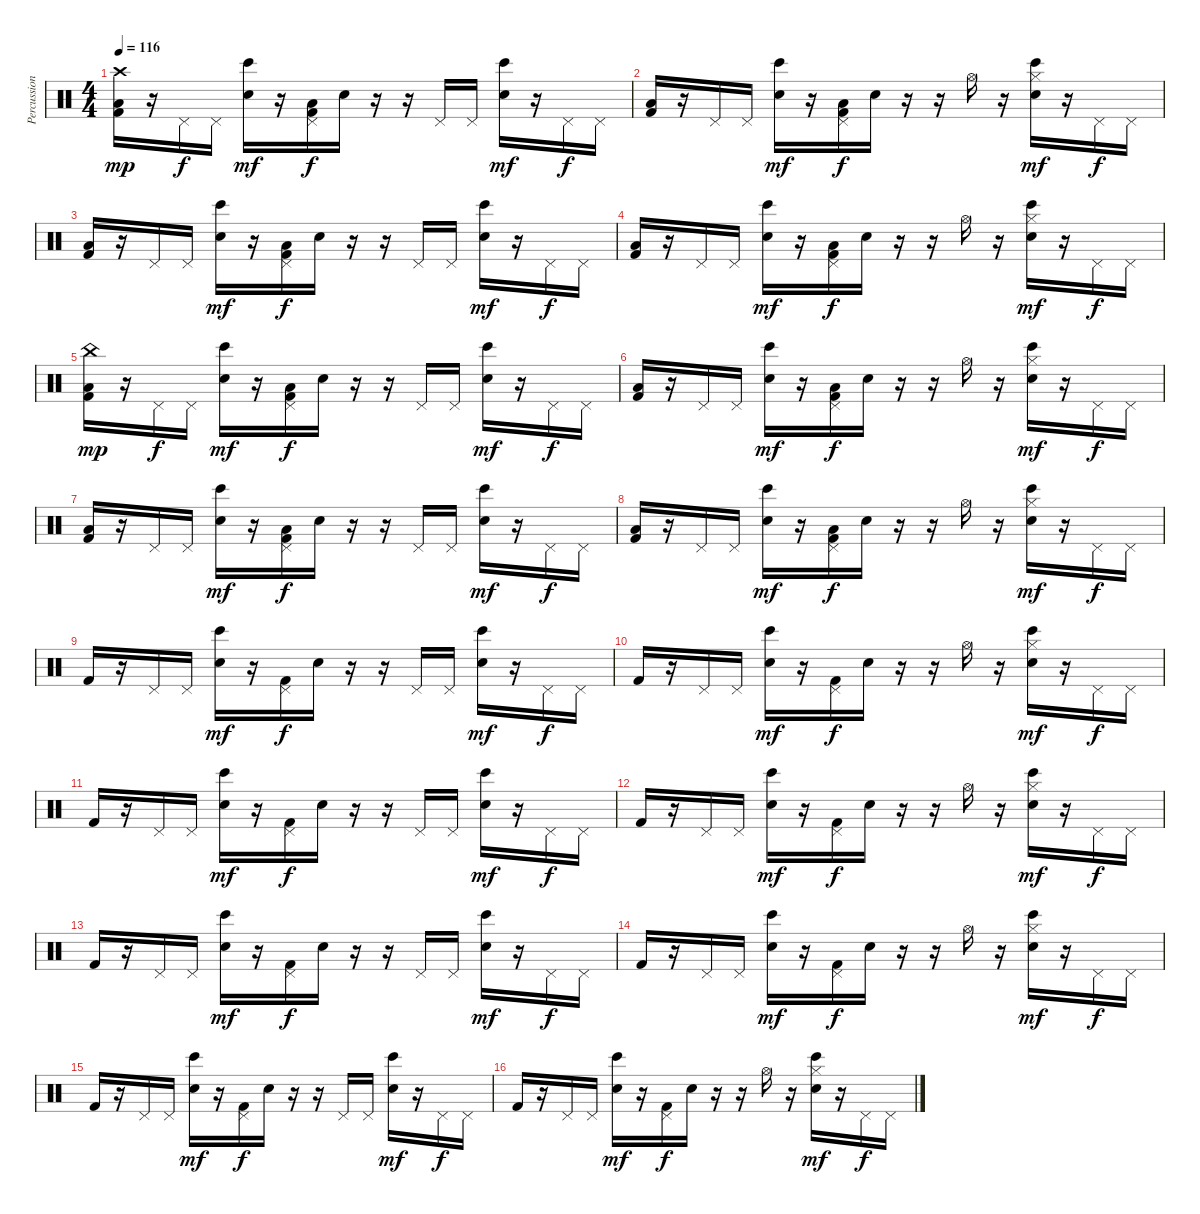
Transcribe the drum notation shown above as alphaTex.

\track ("Percussion" "Percussion") {instrument percussion}
\staff {score}
\articulation defaults
\ts (4 4)
\tempo 116
\clef neutral
\ks c
("Crash high (hit)" "Low Floor Tom (hit)" "Kick (hit) 2").16{dy mp} r.16 "Pedal Hi-Hat (hit)".16{dy f} "Pedal Hi-Hat (hit)".16 ("Bongo High (hit)" "Hand Clap (hit)").16{dy mf} r.16 ("Pedal Hi-Hat (hit)" "Low Floor Tom (hit)" "Kick (hit) 2").16{dy f} "Snare (hit)".16 r.16 r.16 "Pedal Hi-Hat (hit)".16 "Pedal Hi-Hat (hit)".16 ("Bongo High (hit)" "Hand Clap (hit)").16{dy mf} r.16 "Pedal Hi-Hat (hit)".16{dy f} "Pedal Hi-Hat (hit)".16 |
("Low Floor Tom (hit)" "Kick (hit) 2").16 r.16 "Pedal Hi-Hat (hit)".16 "Pedal Hi-Hat (hit)".16 ("Bongo High (hit)" "Hand Clap (hit)").16{dy mf} r.16 ("Pedal Hi-Hat (hit)" "Low Floor Tom (hit)" "Kick (hit) 2").16{dy f} "Snare (hit)".16 r.16 r.16 "Hi-Hat (open)".16 r.16 ("Hi-Hat (closed)" "Bongo High (hit)" "Hand Clap (hit)").16{dy mf} r.16 "Pedal Hi-Hat (hit)".16{dy f} "Pedal Hi-Hat (hit)".16 |
("Low Floor Tom (hit)" "Kick (hit) 2").16 r.16 "Pedal Hi-Hat (hit)".16 "Pedal Hi-Hat (hit)".16 ("Bongo High (hit)" "Hand Clap (hit)").16{dy mf} r.16 ("Pedal Hi-Hat (hit)" "Low Floor Tom (hit)" "Kick (hit) 2").16{dy f} "Snare (hit)".16 r.16 r.16 "Pedal Hi-Hat (hit)".16 "Pedal Hi-Hat (hit)".16 ("Bongo High (hit)" "Hand Clap (hit)").16{dy mf} r.16 "Pedal Hi-Hat (hit)".16{dy f} "Pedal Hi-Hat (hit)".16 |
("Low Floor Tom (hit)" "Kick (hit) 2").16 r.16 "Pedal Hi-Hat (hit)".16 "Pedal Hi-Hat (hit)".16 ("Bongo High (hit)" "Hand Clap (hit)").16{dy mf} r.16 ("Pedal Hi-Hat (hit)" "Low Floor Tom (hit)" "Kick (hit) 2").16{dy f} "Snare (hit)".16 r.16 r.16 "Hi-Hat (open)".16 r.16 ("Hi-Hat (closed)" "Bongo High (hit)" "Hand Clap (hit)").16{dy mf} r.16 "Pedal Hi-Hat (hit)".16{dy f} "Pedal Hi-Hat (hit)".16 |
("China (hit)" "Low Floor Tom (hit)" "Kick (hit) 2").16{dy mp} r.16 "Pedal Hi-Hat (hit)".16{dy f} "Pedal Hi-Hat (hit)".16 ("Bongo High (hit)" "Hand Clap (hit)").16{dy mf} r.16 ("Pedal Hi-Hat (hit)" "Low Floor Tom (hit)" "Kick (hit) 2").16{dy f} "Snare (hit)".16 r.16 r.16 "Pedal Hi-Hat (hit)".16 "Pedal Hi-Hat (hit)".16 ("Bongo High (hit)" "Hand Clap (hit)").16{dy mf} r.16 "Pedal Hi-Hat (hit)".16{dy f} "Pedal Hi-Hat (hit)".16 |
("Low Floor Tom (hit)" "Kick (hit) 2").16 r.16 "Pedal Hi-Hat (hit)".16 "Pedal Hi-Hat (hit)".16 ("Bongo High (hit)" "Hand Clap (hit)").16{dy mf} r.16 ("Pedal Hi-Hat (hit)" "Low Floor Tom (hit)" "Kick (hit) 2").16{dy f} "Snare (hit)".16 r.16 r.16 "Hi-Hat (open)".16 r.16 ("Hi-Hat (closed)" "Bongo High (hit)" "Hand Clap (hit)").16{dy mf} r.16 "Pedal Hi-Hat (hit)".16{dy f} "Pedal Hi-Hat (hit)".16 |
("Low Floor Tom (hit)" "Kick (hit) 2").16 r.16 "Pedal Hi-Hat (hit)".16 "Pedal Hi-Hat (hit)".16 ("Bongo High (hit)" "Hand Clap (hit)").16{dy mf} r.16 ("Pedal Hi-Hat (hit)" "Low Floor Tom (hit)" "Kick (hit) 2").16{dy f} "Snare (hit)".16 r.16 r.16 "Pedal Hi-Hat (hit)".16 "Pedal Hi-Hat (hit)".16 ("Bongo High (hit)" "Hand Clap (hit)").16{dy mf} r.16 "Pedal Hi-Hat (hit)".16{dy f} "Pedal Hi-Hat (hit)".16 |
("Low Floor Tom (hit)" "Kick (hit) 2").16 r.16 "Pedal Hi-Hat (hit)".16 "Pedal Hi-Hat (hit)".16 ("Bongo High (hit)" "Hand Clap (hit)").16{dy mf} r.16 ("Pedal Hi-Hat (hit)" "Low Floor Tom (hit)" "Kick (hit) 2").16{dy f} "Snare (hit)".16 r.16 r.16 "Hi-Hat (open)".16 r.16 ("Hi-Hat (closed)" "Bongo High (hit)" "Hand Clap (hit)").16{dy mf} r.16 "Pedal Hi-Hat (hit)".16{dy f} "Pedal Hi-Hat (hit)".16 |
"Kick (hit) 2".16 r.16 "Pedal Hi-Hat (hit)".16 "Pedal Hi-Hat (hit)".16 ("Bongo High (hit)" "Hand Clap (hit)").16{dy mf} r.16 ("Pedal Hi-Hat (hit)" "Kick (hit) 2").16{dy f} "Snare (hit)".16 r.16 r.16 "Pedal Hi-Hat (hit)".16 "Pedal Hi-Hat (hit)".16 ("Bongo High (hit)" "Hand Clap (hit)").16{dy mf} r.16 "Pedal Hi-Hat (hit)".16{dy f} "Pedal Hi-Hat (hit)".16 |
"Kick (hit) 2".16 r.16 "Pedal Hi-Hat (hit)".16 "Pedal Hi-Hat (hit)".16 ("Bongo High (hit)" "Hand Clap (hit)").16{dy mf} r.16 ("Pedal Hi-Hat (hit)" "Kick (hit) 2").16{dy f} "Snare (hit)".16 r.16 r.16 "Hi-Hat (open)".16 r.16 ("Hi-Hat (closed)" "Bongo High (hit)" "Hand Clap (hit)").16{dy mf} r.16 "Pedal Hi-Hat (hit)".16{dy f} "Pedal Hi-Hat (hit)".16 |
"Kick (hit) 2".16 r.16 "Pedal Hi-Hat (hit)".16 "Pedal Hi-Hat (hit)".16 ("Bongo High (hit)" "Hand Clap (hit)").16{dy mf} r.16 ("Pedal Hi-Hat (hit)" "Kick (hit) 2").16{dy f} "Snare (hit)".16 r.16 r.16 "Pedal Hi-Hat (hit)".16 "Pedal Hi-Hat (hit)".16 ("Bongo High (hit)" "Hand Clap (hit)").16{dy mf} r.16 "Pedal Hi-Hat (hit)".16{dy f} "Pedal Hi-Hat (hit)".16 |
"Kick (hit) 2".16 r.16 "Pedal Hi-Hat (hit)".16 "Pedal Hi-Hat (hit)".16 ("Bongo High (hit)" "Hand Clap (hit)").16{dy mf} r.16 ("Pedal Hi-Hat (hit)" "Kick (hit) 2").16{dy f} "Snare (hit)".16 r.16 r.16 "Hi-Hat (open)".16 r.16 ("Hi-Hat (closed)" "Bongo High (hit)" "Hand Clap (hit)").16{dy mf} r.16 "Pedal Hi-Hat (hit)".16{dy f} "Pedal Hi-Hat (hit)".16 |
"Kick (hit) 2".16 r.16 "Pedal Hi-Hat (hit)".16 "Pedal Hi-Hat (hit)".16 ("Bongo High (hit)" "Hand Clap (hit)").16{dy mf} r.16 ("Pedal Hi-Hat (hit)" "Kick (hit) 2").16{dy f} "Snare (hit)".16 r.16 r.16 "Pedal Hi-Hat (hit)".16 "Pedal Hi-Hat (hit)".16 ("Bongo High (hit)" "Hand Clap (hit)").16{dy mf} r.16 "Pedal Hi-Hat (hit)".16{dy f} "Pedal Hi-Hat (hit)".16 |
"Kick (hit) 2".16 r.16 "Pedal Hi-Hat (hit)".16 "Pedal Hi-Hat (hit)".16 ("Bongo High (hit)" "Hand Clap (hit)").16{dy mf} r.16 ("Pedal Hi-Hat (hit)" "Kick (hit) 2").16{dy f} "Snare (hit)".16 r.16 r.16 "Hi-Hat (open)".16 r.16 ("Hi-Hat (closed)" "Bongo High (hit)" "Hand Clap (hit)").16{dy mf} r.16 "Pedal Hi-Hat (hit)".16{dy f} "Pedal Hi-Hat (hit)".16 |
"Kick (hit) 2".16 r.16 "Pedal Hi-Hat (hit)".16 "Pedal Hi-Hat (hit)".16 ("Bongo High (hit)" "Hand Clap (hit)").16{dy mf} r.16 ("Pedal Hi-Hat (hit)" "Kick (hit) 2").16{dy f} "Snare (hit)".16 r.16 r.16 "Pedal Hi-Hat (hit)".16 "Pedal Hi-Hat (hit)".16 ("Bongo High (hit)" "Hand Clap (hit)").16{dy mf} r.16 "Pedal Hi-Hat (hit)".16{dy f} "Pedal Hi-Hat (hit)".16 |
"Kick (hit) 2".16 r.16 "Pedal Hi-Hat (hit)".16 "Pedal Hi-Hat (hit)".16 ("Bongo High (hit)" "Hand Clap (hit)").16{dy mf} r.16 ("Pedal Hi-Hat (hit)" "Kick (hit) 2").16{dy f} "Snare (hit)".16 r.16 r.16 "Hi-Hat (open)".16 r.16 ("Hi-Hat (closed)" "Bongo High (hit)" "Hand Clap (hit)").16{dy mf} r.16 "Pedal Hi-Hat (hit)".16{dy f} "Pedal Hi-Hat (hit)".16
